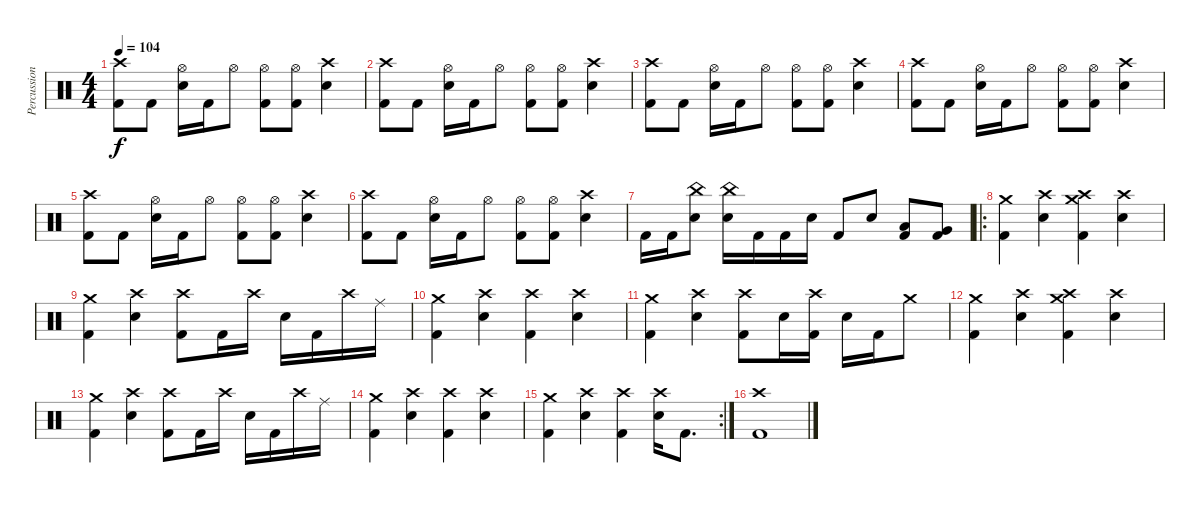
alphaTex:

\track ("Percussions" "Percussion") {instrument percussion}
\staff {score}
\articulation defaults
\ts (4 4)
\tempo 104
\clef neutral
\ks c
("Crash high (hit)" "Kick (hit) 2").8{dy f} "Kick (hit) 2".8 ("Hi-Hat (open)" "Snare (hit) 2").16 "Kick (hit) 2".16 "Hi-Hat (open)".8 ("Hi-Hat (open)" "Kick (hit) 2").8 ("Hi-Hat (open)" "Kick (hit) 2").8 ("Crash high (hit)" "Snare (hit) 2").4 |
("Crash high (hit)" "Kick (hit) 2").8 "Kick (hit) 2".8 ("Hi-Hat (open)" "Snare (hit) 2").16 "Kick (hit) 2".16 "Hi-Hat (open)".8 ("Hi-Hat (open)" "Kick (hit) 2").8 ("Hi-Hat (open)" "Kick (hit) 2").8 ("Crash high (hit)" "Snare (hit) 2").4 |
("Crash high (hit)" "Kick (hit) 2").8 "Kick (hit) 2".8 ("Hi-Hat (open)" "Snare (hit) 2").16 "Kick (hit) 2".16 "Hi-Hat (open)".8 ("Hi-Hat (open)" "Kick (hit) 2").8 ("Hi-Hat (open)" "Kick (hit) 2").8 ("Crash high (hit)" "Snare (hit) 2").4 |
("Crash high (hit)" "Kick (hit) 2").8 "Kick (hit) 2".8 ("Hi-Hat (open)" "Snare (hit) 2").16 "Kick (hit) 2".16 "Hi-Hat (open)".8 ("Hi-Hat (open)" "Kick (hit) 2").8 ("Hi-Hat (open)" "Kick (hit) 2").8 ("Crash high (hit)" "Snare (hit) 2").4 |
("Crash high (hit)" "Kick (hit) 2").8 "Kick (hit) 2".8 ("Hi-Hat (open)" "Snare (hit) 2").16 "Kick (hit) 2".16 "Hi-Hat (open)".8 ("Hi-Hat (open)" "Kick (hit) 2").8 ("Hi-Hat (open)" "Kick (hit) 2").8 ("Crash high (hit)" "Snare (hit) 2").4 |
("Crash high (hit)" "Kick (hit) 2").8 "Kick (hit) 2".8 ("Hi-Hat (open)" "Snare (hit) 2").16 "Kick (hit) 2".16 "Hi-Hat (open)".8 ("Hi-Hat (open)" "Kick (hit) 2").8 ("Hi-Hat (open)" "Kick (hit) 2").8 ("Crash high (hit)" "Snare (hit) 2").4 |
"Kick (hit) 2".16 "Kick (hit) 2".16 ("China (hit)" "Snare (hit) 2").8 ("China (hit)" "Snare (hit) 2").16 "Kick (hit) 2".16 "Kick (hit) 2".16 "Snare (hit) 2".16 "Kick (hit) 2".8 "Snare (hit) 2".8 ("Low Tom (hit)" "Kick (hit) 2").8 ("Very Low Tom (hit)" "Kick (hit) 2").8 |
\ro
("Crash medium (hit)" "Kick (hit) 2").4 ("Crash high (hit)" "Snare (hit) 2").4 ("Crash medium (hit)" "Crash high (hit)" "Kick (hit) 2").4 ("Crash high (hit)" "Snare (hit) 2").4 |
("Crash medium (hit)" "Kick (hit) 2").4 ("Crash high (hit)" "Snare (hit) 2").4 ("Crash high (hit)" "Kick (hit) 2").8 "Kick (hit) 2".16 "Crash high (hit)".16 "Snare (hit) 2".16 "Kick (hit) 2".16 "Crash high (hit)".16 "Ride (middle)".16 |
("Crash medium (hit)" "Kick (hit) 2").4 ("Crash high (hit)" "Snare (hit) 2").4 ("Crash high (hit)" "Kick (hit) 2").4 ("Crash high (hit)" "Snare (hit) 2").4 |
("Crash medium (hit)" "Kick (hit) 2").4 ("Crash high (hit)" "Snare (hit) 2").4 ("Crash high (hit)" "Kick (hit) 2").8 "Snare (hit) 2".16 ("Crash high (hit)" "Kick (hit) 2").16 "Snare (hit) 2".16 "Kick (hit) 2".16 "Crash medium (hit)".8 |
("Crash medium (hit)" "Kick (hit) 2").4 ("Crash high (hit)" "Snare (hit) 2").4 ("Crash medium (hit)" "Crash high (hit)" "Kick (hit) 2").4 ("Crash high (hit)" "Snare (hit) 2").4 |
("Crash medium (hit)" "Kick (hit) 2").4 ("Crash high (hit)" "Snare (hit) 2").4 ("Crash high (hit)" "Kick (hit) 2").8 "Kick (hit) 2".16 "Crash high (hit)".16 "Snare (hit) 2".16 "Kick (hit) 2".16 "Crash high (hit)".16 "Ride (middle)".16 |
("Crash medium (hit)" "Kick (hit) 2").4 ("Crash high (hit)" "Snare (hit) 2").4 ("Crash high (hit)" "Kick (hit) 2").4 ("Crash high (hit)" "Snare (hit) 2").4 |
\rc 2
("Crash medium (hit)" "Kick (hit) 2").4 ("Crash high (hit)" "Snare (hit) 2").4 ("Crash high (hit)" "Kick (hit) 2").4 ("Crash high (hit)" "Snare (hit) 2").16 "Kick (hit) 2".8{d} |
("Crash high (hit)" "Kick (hit) 2").1
